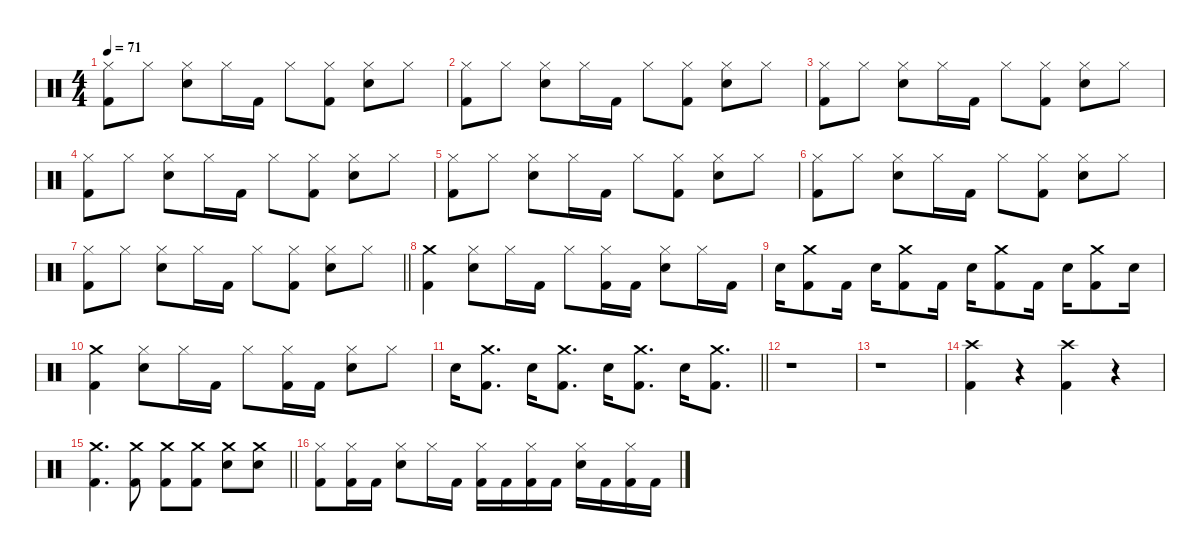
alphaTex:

\defaultSystemsLayout 4
\hideDynamics
\bracketExtendMode nobrackets
\singleTrackTrackNamePolicy hidden
\multiTrackTrackNamePolicy hidden
\firstSystemTrackNameMode fullname
\firstSystemTrackNameOrientation horizontal
\otherSystemsTrackNameOrientation horizontal
\track ("Drums" "drm.") {instrument percussion}
\staff {score}
\articulation defaults
\ts (4 4)
\tempo 71
\clef neutral
\ks c
("Hi-Hat (closed)" "Kick (hit) 2").8{dy f beam Down} "Hi-Hat (closed)".8{beam Down} ("Hi-Hat (closed)" "Snare (hit) 2").8{beam Down} "Hi-Hat (closed)".16{beam Down} "Kick (hit) 2".16{beam Down} "Hi-Hat (closed)".8{beam Down} ("Kick (hit) 2" "Hi-Hat (closed)").8{beam Down} ("Hi-Hat (closed)" "Snare (hit) 2").8{beam Down} "Hi-Hat (closed)".8{beam Down} |
("Hi-Hat (closed)" "Kick (hit) 2").8{beam Down} "Hi-Hat (closed)".8{beam Down} ("Hi-Hat (closed)" "Snare (hit) 2").8{beam Down} "Hi-Hat (closed)".16{beam Down} "Kick (hit) 2".16{beam Down} "Hi-Hat (closed)".8{beam Down} ("Kick (hit) 2" "Hi-Hat (closed)").8{beam Down} ("Hi-Hat (closed)" "Snare (hit) 2").8{beam Down} "Hi-Hat (closed)".8{beam Down} |
("Hi-Hat (closed)" "Kick (hit) 2").8{beam Down} "Hi-Hat (closed)".8{beam Down} ("Hi-Hat (closed)" "Snare (hit) 2").8{beam Down} "Hi-Hat (closed)".16{beam Down} "Kick (hit) 2".16{beam Down} "Hi-Hat (closed)".8{beam Down} ("Kick (hit) 2" "Hi-Hat (closed)").8{beam Down} ("Hi-Hat (closed)" "Snare (hit) 2").8{beam Down} "Hi-Hat (closed)".8{beam Down} |
("Hi-Hat (closed)" "Kick (hit) 2").8{beam Down} "Hi-Hat (closed)".8{beam Down} ("Hi-Hat (closed)" "Snare (hit) 2").8{beam Down} "Hi-Hat (closed)".16{beam Down} "Kick (hit) 2".16{beam Down} "Hi-Hat (closed)".8{beam Down} ("Kick (hit) 2" "Hi-Hat (closed)").8{beam Down} ("Hi-Hat (closed)" "Snare (hit) 2").8{beam Down} "Hi-Hat (closed)".8{beam Down} |
("Hi-Hat (closed)" "Kick (hit) 2").8{beam Down} "Hi-Hat (closed)".8{beam Down} ("Hi-Hat (closed)" "Snare (hit) 2").8{beam Down} "Hi-Hat (closed)".16{beam Down} "Kick (hit) 2".16{beam Down} "Hi-Hat (closed)".8{beam Down} ("Kick (hit) 2" "Hi-Hat (closed)").8{beam Down} ("Hi-Hat (closed)" "Snare (hit) 2").8{beam Down} "Hi-Hat (closed)".8{beam Down} |
("Hi-Hat (closed)" "Kick (hit) 2").8{beam Down} "Hi-Hat (closed)".8{beam Down} ("Hi-Hat (closed)" "Snare (hit) 2").8{beam Down} "Hi-Hat (closed)".16{beam Down} "Kick (hit) 2".16{beam Down} "Hi-Hat (closed)".8{beam Down} ("Kick (hit) 2" "Hi-Hat (closed)").8{beam Down} ("Hi-Hat (closed)" "Snare (hit) 2").8{beam Down} "Hi-Hat (closed)".8{beam Down} |
\barLineRight lightlight
("Hi-Hat (closed)" "Kick (hit) 2").8{beam Down} "Hi-Hat (closed)".8{beam Down} ("Hi-Hat (closed)" "Snare (hit) 2").8{beam Down} "Hi-Hat (closed)".16{beam Down} "Kick (hit) 2".16{beam Down} "Hi-Hat (closed)".8{beam Down} ("Kick (hit) 2" "Hi-Hat (closed)").8{beam Down} ("Hi-Hat (closed)" "Snare (hit) 2").8{beam Down} "Hi-Hat (closed)".8{beam Down} |
("Crash medium (hit)" "Kick (hit) 2").4{beam Down} ("Snare (hit) 2" "Hi-Hat (closed)").8{beam Down} "Hi-Hat (closed)".16{beam Down} "Kick (hit) 2".16{beam Down} "Hi-Hat (closed)".8{beam Down} ("Hi-Hat (closed)" "Kick (hit) 2").16{beam Down} "Kick (hit) 2".16{beam Down} ("Hi-Hat (closed)" "Snare (hit) 2").8{beam Down} "Hi-Hat (closed)".16{beam Down} "Kick (hit) 2".16{beam Down} |
"Snare (hit) 2".16{beam Down} ("Crash medium (hit)" "Kick (hit) 2").8{beam Down} "Kick (hit) 2".16{beam Down} "Snare (hit) 2".16{beam Down} ("Crash medium (hit)" "Kick (hit) 2").8{beam Down} "Kick (hit) 2".16{beam Down} "Snare (hit) 2".16{beam Down} ("Crash medium (hit)" "Kick (hit) 2").8{beam Down} "Kick (hit) 2".16{beam Down} "Snare (hit) 2".16{beam Down} ("Crash medium (hit)" "Kick (hit) 2").8{beam Down} "Snare (hit) 2".16{beam Down} |
("Kick (hit) 2" "Crash medium (hit)").4{beam Down} ("Hi-Hat (closed)" "Snare (hit) 2").8{beam Down} "Hi-Hat (closed)".16{beam Down} "Kick (hit) 2".16{beam Down} "Hi-Hat (closed)".8{beam Down} ("Kick (hit) 2" "Hi-Hat (closed)").16{beam Down} "Kick (hit) 2".16{beam Down} ("Hi-Hat (closed)" "Snare (hit) 2").8{beam Down} "Hi-Hat (closed)".8{beam Down} |
\barLineRight lightlight "Snare (hit) 2".16{beam Down}
("Crash medium (hit)" "Kick (hit) 2").8{d beam Down} "Snare (hit) 2".16{beam Down} ("Crash medium (hit)" "Kick (hit) 2").8{d beam Down} "Snare (hit) 2".16{beam Down} ("Crash medium (hit)" "Kick (hit) 2").8{d beam Down} "Snare (hit) 2".16{beam Down} ("Crash medium (hit)" "Kick (hit) 2").8{d beam Down} |
r.1{beam Down} |
r.1{beam Down} |
("Crash high (hit)" "Kick (hit) 2").4{beam Down} r.4{beam Down} ("Crash high (hit)" "Kick (hit) 2").4{beam Down} r.4{beam Down} |
\barLineRight lightlight
("Crash medium (hit)" "Kick (hit) 2").4{d beam Down} ("Kick (hit) 2" "Crash medium (hit)").8{beam Down} ("Kick (hit) 2" "Crash medium (hit)").8{beam Down} ("Kick (hit) 2" "Crash medium (hit)").8{beam Down} ("Snare (hit) 2" "Crash medium (hit)").8{beam Down} ("Snare (hit) 2" "Crash medium (hit)").8{beam Down} |
("Hi-Hat (closed)" "Kick (hit) 2").8{beam Down} ("Hi-Hat (closed)" "Kick (hit) 2").16{beam Down} "Kick (hit) 2".16{beam Down} ("Hi-Hat (closed)" "Snare (hit) 2").8{beam Down} "Hi-Hat (closed)".16{beam Down} "Kick (hit) 2".16{beam Down} ("Hi-Hat (closed)" "Kick (hit) 2").16{beam Down} "Kick (hit) 2".16{beam Down} ("Hi-Hat (closed)" "Kick (hit) 2").16{beam Down} "Kick (hit) 2".16{beam Down} ("Hi-Hat (closed)" "Snare (hit) 2").16{beam Down} "Kick (hit) 2".16{beam Down} ("Hi-Hat (closed)" "Kick (hit) 2").16{beam Down} "Kick (hit) 2".16{beam Down}
